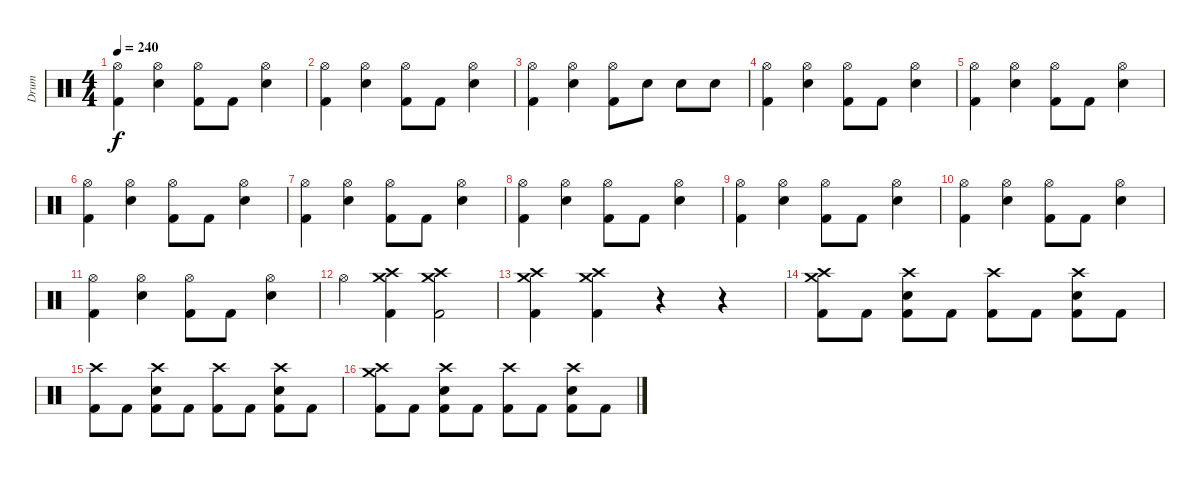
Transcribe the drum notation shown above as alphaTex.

\track ("Drum" "Drum") {instrument percussion}
\staff {score}
\articulation defaults
\ts (4 4)
\tempo 240
\clef neutral
\ks c
("Hi-Hat (open)" "Kick (hit) 2").4{dy f} ("Hi-Hat (open)" "Electric Snare (hit)").4 ("Hi-Hat (open)" "Kick (hit) 2").8 "Kick (hit) 2".8 ("Hi-Hat (open)" "Electric Snare (hit)").4 |
("Hi-Hat (open)" "Kick (hit) 2").4 ("Hi-Hat (open)" "Electric Snare (hit)").4 ("Hi-Hat (open)" "Kick (hit) 2").8 "Kick (hit) 2".8 ("Hi-Hat (open)" "Electric Snare (hit)").4 |
("Hi-Hat (open)" "Kick (hit) 2").4 ("Hi-Hat (open)" "Electric Snare (hit)").4 ("Hi-Hat (open)" "Kick (hit) 2").8 "Electric Snare (hit)".8 "Electric Snare (hit)".8 "Electric Snare (hit)".8 |
("Hi-Hat (open)" "Kick (hit) 2").4 ("Hi-Hat (open)" "Electric Snare (hit)").4 ("Hi-Hat (open)" "Kick (hit) 2").8 "Kick (hit) 2".8 ("Hi-Hat (open)" "Electric Snare (hit)").4 |
("Hi-Hat (open)" "Kick (hit) 2").4 ("Hi-Hat (open)" "Electric Snare (hit)").4 ("Hi-Hat (open)" "Kick (hit) 2").8 "Kick (hit) 2".8 ("Hi-Hat (open)" "Electric Snare (hit)").4 |
("Hi-Hat (open)" "Kick (hit) 2").4 ("Hi-Hat (open)" "Electric Snare (hit)").4 ("Hi-Hat (open)" "Kick (hit) 2").8 "Kick (hit) 2".8 ("Hi-Hat (open)" "Electric Snare (hit)").4 |
("Hi-Hat (open)" "Kick (hit) 2").4 ("Hi-Hat (open)" "Electric Snare (hit)").4 ("Hi-Hat (open)" "Kick (hit) 2").8 "Kick (hit) 2".8 ("Hi-Hat (open)" "Electric Snare (hit)").4 |
("Hi-Hat (open)" "Kick (hit) 2").4 ("Hi-Hat (open)" "Electric Snare (hit)").4 ("Hi-Hat (open)" "Kick (hit) 2").8 "Kick (hit) 2".8 ("Hi-Hat (open)" "Electric Snare (hit)").4 |
("Hi-Hat (open)" "Kick (hit) 2").4 ("Hi-Hat (open)" "Electric Snare (hit)").4 ("Hi-Hat (open)" "Kick (hit) 2").8 "Kick (hit) 2".8 ("Hi-Hat (open)" "Electric Snare (hit)").4 |
("Hi-Hat (open)" "Kick (hit) 2").4 ("Hi-Hat (open)" "Electric Snare (hit)").4 ("Hi-Hat (open)" "Kick (hit) 2").8 "Kick (hit) 2".8 ("Hi-Hat (open)" "Electric Snare (hit)").4 |
("Hi-Hat (open)" "Kick (hit) 2").4 ("Hi-Hat (open)" "Electric Snare (hit)").4 ("Hi-Hat (open)" "Kick (hit) 2").8 "Kick (hit) 2".8 ("Hi-Hat (open)" "Electric Snare (hit)").4 |
"Hi-Hat (open)".4 ("Crash high (hit)" "Kick (hit) 2" "Crash medium (hit)").4 ("Crash high (hit)" "Kick (hit) 2" "Crash medium (hit)").2 |
("Crash high (hit)" "Kick (hit) 2" "Crash medium (hit)").4 ("Crash high (hit)" "Kick (hit) 2" "Crash medium (hit)").4 r.4 r.4 |
("Crash high (hit)" "Kick (hit) 2" "Crash medium (hit)").8 "Kick (hit) 2".8 ("Crash high (hit)" "Kick (hit) 2" "Electric Snare (hit)").8 "Kick (hit) 2".8 ("Crash high (hit)" "Kick (hit) 2").8 "Kick (hit) 2".8 ("Crash high (hit)" "Kick (hit) 2" "Electric Snare (hit)").8 "Kick (hit) 2".8 |
("Crash high (hit)" "Kick (hit) 2").8 "Kick (hit) 2".8 ("Crash high (hit)" "Kick (hit) 2" "Electric Snare (hit)").8 "Kick (hit) 2".8 ("Crash high (hit)" "Kick (hit) 2").8 "Kick (hit) 2".8 ("Crash high (hit)" "Kick (hit) 2" "Electric Snare (hit)").8 "Kick (hit) 2".8 |
("Crash high (hit)" "Kick (hit) 2" "Crash medium (hit)").8 "Kick (hit) 2".8 ("Crash high (hit)" "Kick (hit) 2" "Electric Snare (hit)").8 "Kick (hit) 2".8 ("Crash high (hit)" "Kick (hit) 2").8 "Kick (hit) 2".8 ("Crash high (hit)" "Kick (hit) 2" "Electric Snare (hit)").8 "Kick (hit) 2".8
